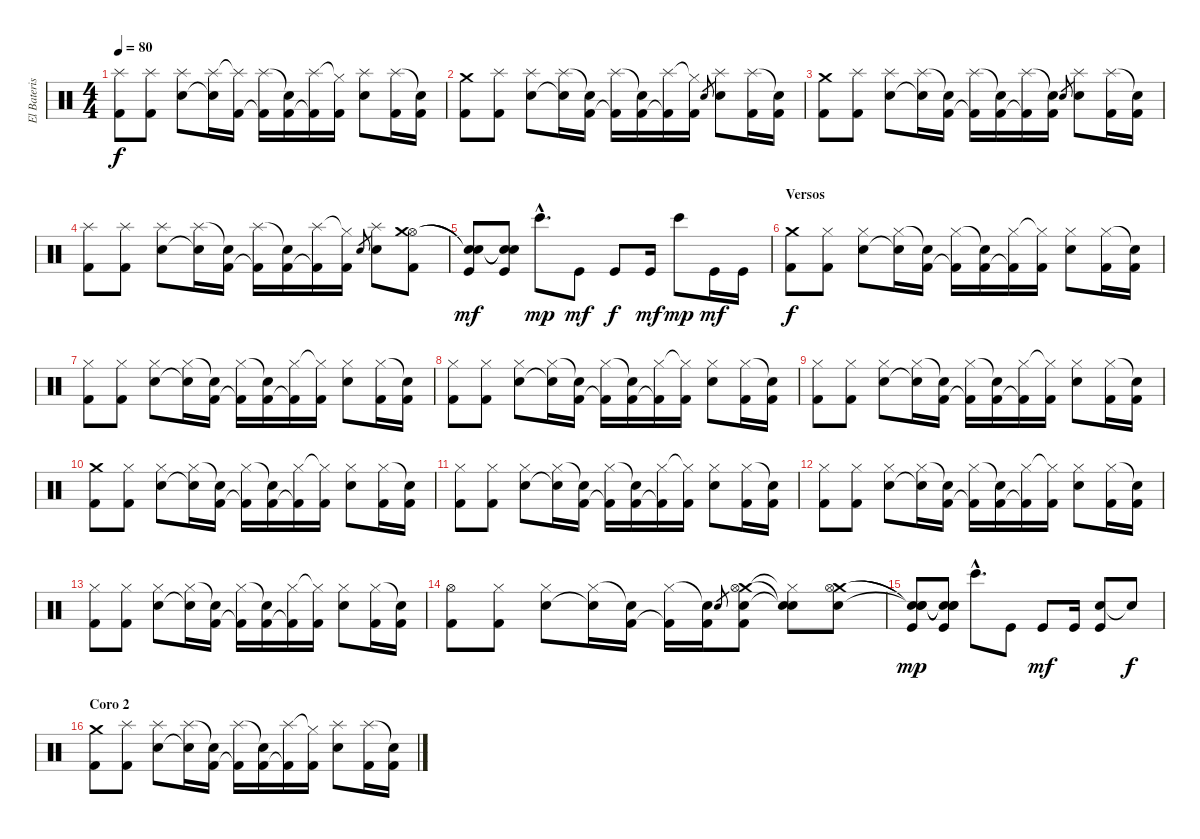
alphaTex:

\track ("El Baterista" "El Bateris") {instrument percussion}
\staff {score}
\articulation defaults
\ts (4 4)
\tempo 80
\clef neutral
\ks c
("Splash (hit)" "Kick (hit) 2").8{dy f} ("Splash (hit)" "Kick (hit) 2").8 ("Splash (hit)" "Electric Snare (hit)").8 ("Splash (hit)" "Snare (hit)"{t}).16 ("Splash (hit)"{t} "Kick (hit) 2").16 ("Splash (hit)" "Kick (hit) 2"{t}).16 ("Snare (hit)"{t} "Kick (hit) 2").16 ("Splash (hit)" "Kick (hit) 2"{t}).16 ("Hi-Hat (closed)"{t} "Kick (hit) 2").16 ("Splash (hit)" "Electric Snare (hit)").8 ("Splash (hit)" "Kick (hit) 2").16 ("Snare (hit)"{t} "Kick (hit) 2").16 |
("Crash medium (hit)" "Kick (hit) 2").8 ("Splash (hit)" "Kick (hit) 2").8 ("Splash (hit)" "Electric Snare (hit)").8 ("Splash (hit)" "Snare (hit)"{t}).16 ("Snare (hit)"{t} "Kick (hit) 2").16 ("Splash (hit)" "Kick (hit) 2"{t}).16 ("Snare (hit)"{t} "Kick (hit) 2").16 ("Splash (hit)" "Kick (hit) 2"{t}).16 ("Hi-Hat (closed)"{t} "Kick (hit) 2").16 "Electric Snare (hit)".8{gr} ("Splash (hit)" "Electric Snare (hit)").8 ("Splash (hit)" "Kick (hit) 2").16 ("Snare (hit)"{t} "Kick (hit) 2").16 |
("Crash medium (hit)" "Kick (hit) 2").8 ("Splash (hit)" "Kick (hit) 2").8 ("Splash (hit)" "Electric Snare (hit)").8 ("Splash (hit)" "Snare (hit)"{t}).16 ("Snare (hit)"{t} "Kick (hit) 2").16 ("Splash (hit)" "Kick (hit) 2"{t}).16 ("Snare (hit)"{t} "Kick (hit) 2").16 ("Splash (hit)" "Kick (hit) 2"{t}).16 ("Snare (hit)"{t} "Kick (hit) 2").16 "Electric Snare (hit)".8{gr} ("Splash (hit)" "Electric Snare (hit)").8 ("Splash (hit)" "Kick (hit) 2").16 ("Snare (hit)"{t} "Kick (hit) 2").16 |
("Splash (hit)" "Kick (hit) 2").8 ("Splash (hit)" "Kick (hit) 2").8 ("Splash (hit)" "Electric Snare (hit)").8 ("Splash (hit)" "Snare (hit)"{t}).16 ("Snare (hit)"{t} "Kick (hit) 2").16 ("Splash (hit)" "Kick (hit) 2"{t}).16 ("Snare (hit)"{t} "Kick (hit) 2").16 ("Splash (hit)" "Kick (hit) 2"{t}).16 ("Hi-Hat (closed)"{t} "Kick (hit) 2").16 "Electric Snare (hit)".8{gr} ("Splash (hit)" "Electric Snare (hit)").8 ("Hi-Hat (open)" "Crash medium (hit)" "Kick (hit) 2").8 |
("Snare (hit)"{t} "Snare (hit)"{t} "Kick (hit)").8{dy mf} ("Snare (hit)"{t} "Snare (hit)"{t} "Kick (hit)").8 "Bongo High (hit)"{hac}.8{d dy mp} "Kick (hit)".8{dy mf} "Kick (hit)".8{dy f} "Kick (hit)".16{dy mf} "Bongo High (hit)".8{dy mp} "Kick (hit)".16{dy mf} "Kick (hit)".16 |
\section ("" "Versos")
("Crash medium (hit)" "Kick (hit) 2").8{dy f} ("Hi-Hat (closed)" "Kick (hit) 2").8 ("Hi-Hat (closed)" "Electric Snare (hit)").8 ("Hi-Hat (closed)" "Snare (hit)"{t}).16 ("Snare (hit)"{t} "Kick (hit) 2").16 ("Hi-Hat (closed)" "Kick (hit) 2"{t}).16 ("Snare (hit)"{t} "Kick (hit) 2").16 ("Hi-Hat (closed)" "Kick (hit) 2"{t}).16 ("Hi-Hat (closed)"{t} "Kick (hit) 2").16 ("Hi-Hat (closed)" "Electric Snare (hit)").8 ("Hi-Hat (closed)" "Kick (hit) 2").16 ("Snare (hit)"{t} "Kick (hit) 2").16 |
("Hi-Hat (closed)" "Kick (hit) 2").8 ("Hi-Hat (closed)" "Kick (hit) 2").8 ("Hi-Hat (closed)" "Electric Snare (hit)").8 ("Hi-Hat (closed)" "Snare (hit)"{t}).16 ("Snare (hit)"{t} "Kick (hit) 2").16 ("Hi-Hat (closed)" "Kick (hit) 2"{t}).16 ("Snare (hit)"{t} "Kick (hit) 2").16 ("Hi-Hat (closed)" "Kick (hit) 2"{t}).16 ("Hi-Hat (closed)"{t} "Kick (hit) 2").16 ("Hi-Hat (closed)" "Electric Snare (hit)").8 ("Hi-Hat (closed)" "Kick (hit) 2").16 ("Snare (hit)"{t} "Kick (hit) 2").16 |
("Hi-Hat (closed)" "Kick (hit) 2").8 ("Hi-Hat (closed)" "Kick (hit) 2").8 ("Hi-Hat (closed)" "Electric Snare (hit)").8 ("Hi-Hat (closed)" "Snare (hit)"{t}).16 ("Snare (hit)"{t} "Kick (hit) 2").16 ("Hi-Hat (closed)" "Kick (hit) 2"{t}).16 ("Snare (hit)"{t} "Kick (hit) 2").16 ("Hi-Hat (closed)" "Kick (hit) 2"{t}).16 ("Hi-Hat (closed)"{t} "Kick (hit) 2").16 ("Hi-Hat (closed)" "Electric Snare (hit)").8 ("Hi-Hat (closed)" "Kick (hit) 2").16 ("Snare (hit)"{t} "Kick (hit) 2").16 |
("Hi-Hat (closed)" "Kick (hit) 2").8 ("Hi-Hat (closed)" "Kick (hit) 2").8 ("Hi-Hat (closed)" "Electric Snare (hit)").8 ("Hi-Hat (closed)" "Snare (hit)"{t}).16 ("Snare (hit)"{t} "Kick (hit) 2").16 ("Hi-Hat (closed)" "Kick (hit) 2"{t}).16 ("Snare (hit)"{t} "Kick (hit) 2").16 ("Hi-Hat (closed)" "Kick (hit) 2"{t}).16 ("Hi-Hat (closed)"{t} "Kick (hit) 2").16 ("Hi-Hat (closed)" "Electric Snare (hit)").8 ("Hi-Hat (closed)" "Kick (hit) 2").16 ("Snare (hit)"{t} "Kick (hit) 2").16 |
("Crash medium (hit)" "Kick (hit) 2").8 ("Hi-Hat (closed)" "Kick (hit) 2").8 ("Hi-Hat (closed)" "Electric Snare (hit)").8 ("Hi-Hat (closed)" "Snare (hit)"{t}).16 ("Snare (hit)"{t} "Kick (hit) 2").16 ("Hi-Hat (closed)" "Kick (hit) 2"{t}).16 ("Snare (hit)"{t} "Kick (hit) 2").16 ("Hi-Hat (closed)" "Kick (hit) 2"{t}).16 ("Hi-Hat (closed)"{t} "Kick (hit) 2").16 ("Hi-Hat (closed)" "Electric Snare (hit)").8 ("Hi-Hat (closed)" "Kick (hit) 2").16 ("Snare (hit)"{t} "Kick (hit) 2").16 |
("Hi-Hat (closed)" "Kick (hit) 2").8 ("Hi-Hat (closed)" "Kick (hit) 2").8 ("Hi-Hat (closed)" "Electric Snare (hit)").8 ("Hi-Hat (closed)" "Snare (hit)"{t}).16 ("Snare (hit)"{t} "Kick (hit) 2").16 ("Hi-Hat (closed)" "Kick (hit) 2"{t}).16 ("Snare (hit)"{t} "Kick (hit) 2").16 ("Hi-Hat (closed)" "Kick (hit) 2"{t}).16 ("Hi-Hat (closed)"{t} "Kick (hit) 2").16 ("Hi-Hat (closed)" "Electric Snare (hit)").8 ("Hi-Hat (closed)" "Kick (hit) 2").16 ("Snare (hit)"{t} "Kick (hit) 2").16 |
("Hi-Hat (closed)" "Kick (hit) 2").8 ("Hi-Hat (closed)" "Kick (hit) 2").8 ("Hi-Hat (closed)" "Electric Snare (hit)").8 ("Hi-Hat (closed)" "Snare (hit)"{t}).16 ("Snare (hit)"{t} "Kick (hit) 2").16 ("Hi-Hat (closed)" "Kick (hit) 2"{t}).16 ("Snare (hit)"{t} "Kick (hit) 2").16 ("Hi-Hat (closed)" "Kick (hit) 2"{t}).16 ("Hi-Hat (closed)"{t} "Kick (hit) 2").16 ("Hi-Hat (closed)" "Electric Snare (hit)").8 ("Hi-Hat (closed)" "Kick (hit) 2").16 ("Snare (hit)"{t} "Kick (hit) 2").16 |
("Hi-Hat (closed)" "Kick (hit) 2").8 ("Hi-Hat (closed)" "Kick (hit) 2").8 ("Hi-Hat (closed)" "Electric Snare (hit)").8 ("Hi-Hat (closed)" "Snare (hit)"{t}).16 ("Snare (hit)"{t} "Kick (hit) 2").16 ("Hi-Hat (closed)" "Kick (hit) 2"{t}).16 ("Snare (hit)"{t} "Kick (hit) 2").16 ("Hi-Hat (closed)" "Kick (hit) 2"{t}).16 ("Hi-Hat (closed)"{t} "Kick (hit) 2").16 ("Hi-Hat (closed)" "Electric Snare (hit)").8 ("Hi-Hat (closed)" "Kick (hit) 2").16 ("Snare (hit)"{t} "Kick (hit) 2").16 |
\section ("" "")
("Hi-Hat (open)" "Kick (hit) 2").8 ("Hi-Hat (closed)" "Kick (hit) 2").8 ("Hi-Hat (closed)" "Electric Snare (hit)").8 ("Hi-Hat (closed)" "Snare (hit)"{t}).16 ("Snare (hit)"{t} "Kick (hit) 2").16 ("Hi-Hat (closed)" "Kick (hit) 2"{t}).16 ("Snare (hit)"{t} "Kick (hit) 2").16 "Electric Snare (hit)".8{gr} ("Crash medium (hit)" "Hi-Hat (open)" "Electric Snare (hit)" "Kick (hit) 2").8 ("Snare (hit)"{t} "Hi-Hat (closed)"{t} "Snare (hit)"{t}).8 ("Crash medium (hit)" "Hi-Hat (open)" "Electric Snare (hit)").8 |
("Snare (hit)"{t} "Snare (hit)"{t} "Snare (hit)"{t} "Kick (hit)").8{dy mp} ("Snare (hit)"{t} "Snare (hit)"{t} "Snare (hit)"{t} "Kick (hit)").8 "Bongo High (hit)"{hac}.8{d} "Kick (hit)".8 "Kick (hit)".8{dy mf} "Kick (hit)".16 ("Electric Snare (hit)" "Kick (hit)").8 "Snare (hit)"{t}.8{dy f} |
\section ("" "Coro 2")
("Crash medium (hit)" "Kick (hit) 2").8 ("Splash (hit)" "Kick (hit) 2").8 ("Splash (hit)" "Electric Snare (hit)").8 ("Splash (hit)" "Snare (hit)"{t}).16 ("Snare (hit)"{t} "Kick (hit) 2").16 ("Splash (hit)" "Kick (hit) 2"{t}).16 ("Snare (hit)"{t} "Kick (hit) 2").16 ("Splash (hit)" "Kick (hit) 2"{t}).16 ("Hi-Hat (closed)"{t} "Kick (hit) 2").16 ("Splash (hit)" "Electric Snare (hit)").8 ("Splash (hit)" "Kick (hit) 2").16 ("Snare (hit)"{t} "Kick (hit) 2").16
